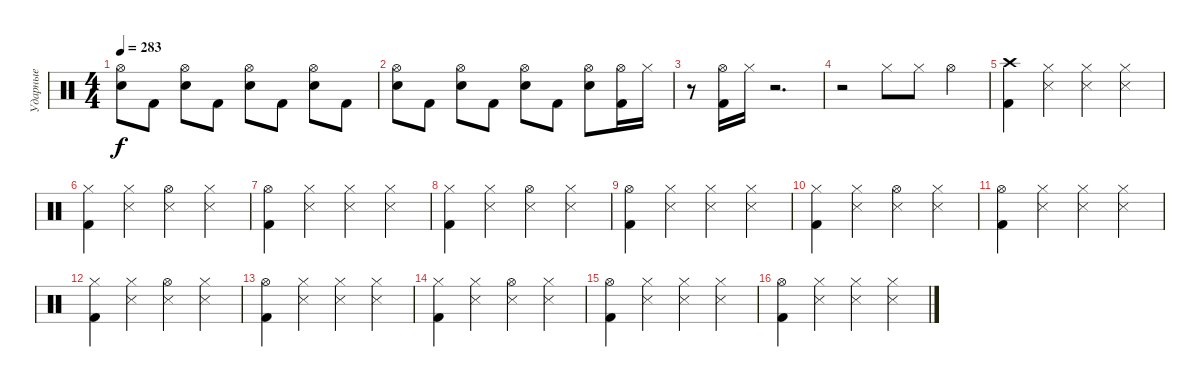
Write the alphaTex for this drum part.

\track ("Ударные" "Ударные") {instrument percussion}
\staff {score}
\articulation defaults
\ts (4 4)
\tempo 283
\clef neutral
\ks c
("Hi-Hat (open)" "Electric Snare (hit)").8{dy f} "Kick (hit) 2".8 ("Hi-Hat (open)" "Electric Snare (hit)").8 "Kick (hit) 2".8 ("Hi-Hat (open)" "Electric Snare (hit)").8 "Kick (hit) 2".8 ("Hi-Hat (open)" "Electric Snare (hit)").8 "Kick (hit) 2".8 |
("Hi-Hat (open)" "Electric Snare (hit)").8 "Kick (hit) 2".8 ("Hi-Hat (open)" "Electric Snare (hit)").8 "Kick (hit) 2".8 ("Hi-Hat (open)" "Electric Snare (hit)").8 "Kick (hit) 2".8 ("Hi-Hat (open)" "Electric Snare (hit)").8 ("Hi-Hat (open)" "Kick (hit) 2").16 "Hi-Hat (closed)".16 |
r.8 ("Hi-Hat (open)" "Kick (hit) 2").16 "Hi-Hat (closed)".16 r.2{d} |
r.2 "Hi-Hat (closed)".8 "Hi-Hat (closed)".8 "Hi-Hat (open)".4 |
("Crash high (hit)" "Kick (hit) 2").4 ("Hi-Hat (closed)" "Snare (side stick) 3").4 ("Hi-Hat (closed)" "Snare (side stick) 3").4 ("Hi-Hat (closed)" "Snare (side stick) 3").4 |
("Hi-Hat (closed)" "Kick (hit) 2").4 ("Hi-Hat (closed)" "Snare (side stick) 3").4 ("Hi-Hat (open)" "Snare (side stick) 3").4 ("Hi-Hat (closed)" "Snare (side stick) 3").4 |
("Hi-Hat (open)" "Kick (hit) 2").4 ("Hi-Hat (closed)" "Snare (side stick) 3").4 ("Hi-Hat (closed)" "Snare (side stick) 3").4 ("Hi-Hat (closed)" "Snare (side stick) 3").4 |
("Hi-Hat (closed)" "Kick (hit) 2").4 ("Hi-Hat (closed)" "Snare (side stick) 3").4 ("Hi-Hat (open)" "Snare (side stick) 3").4 ("Hi-Hat (closed)" "Snare (side stick) 3").4 |
("Hi-Hat (open)" "Kick (hit) 2").4 ("Hi-Hat (closed)" "Snare (side stick) 3").4 ("Hi-Hat (closed)" "Snare (side stick) 3").4 ("Hi-Hat (closed)" "Snare (side stick) 3").4 |
("Hi-Hat (closed)" "Kick (hit) 2").4 ("Hi-Hat (closed)" "Snare (side stick) 3").4 ("Hi-Hat (open)" "Snare (side stick) 3").4 ("Hi-Hat (closed)" "Snare (side stick) 3").4 |
("Hi-Hat (open)" "Kick (hit) 2").4 ("Hi-Hat (closed)" "Snare (side stick) 3").4 ("Hi-Hat (closed)" "Snare (side stick) 3").4 ("Hi-Hat (closed)" "Snare (side stick) 3").4 |
("Hi-Hat (closed)" "Kick (hit) 2").4 ("Hi-Hat (closed)" "Snare (side stick) 3").4 ("Hi-Hat (open)" "Snare (side stick) 3").4 ("Hi-Hat (closed)" "Snare (side stick) 3").4 |
("Hi-Hat (open)" "Kick (hit) 2").4 ("Hi-Hat (closed)" "Snare (side stick) 3").4 ("Hi-Hat (closed)" "Snare (side stick) 3").4 ("Hi-Hat (closed)" "Snare (side stick) 3").4 |
("Hi-Hat (closed)" "Kick (hit) 2").4 ("Hi-Hat (closed)" "Snare (side stick) 3").4 ("Hi-Hat (open)" "Snare (side stick) 3").4 ("Hi-Hat (closed)" "Snare (side stick) 3").4 |
("Hi-Hat (open)" "Kick (hit) 2").4 ("Hi-Hat (closed)" "Snare (side stick) 3").4 ("Hi-Hat (closed)" "Snare (side stick) 3").4 ("Hi-Hat (closed)" "Snare (side stick) 3").4 |
("Hi-Hat (open)" "Kick (hit) 2").4 ("Hi-Hat (closed)" "Snare (side stick) 3").4 ("Hi-Hat (closed)" "Snare (side stick) 3").4 ("Hi-Hat (closed)" "Snare (side stick) 3").4
